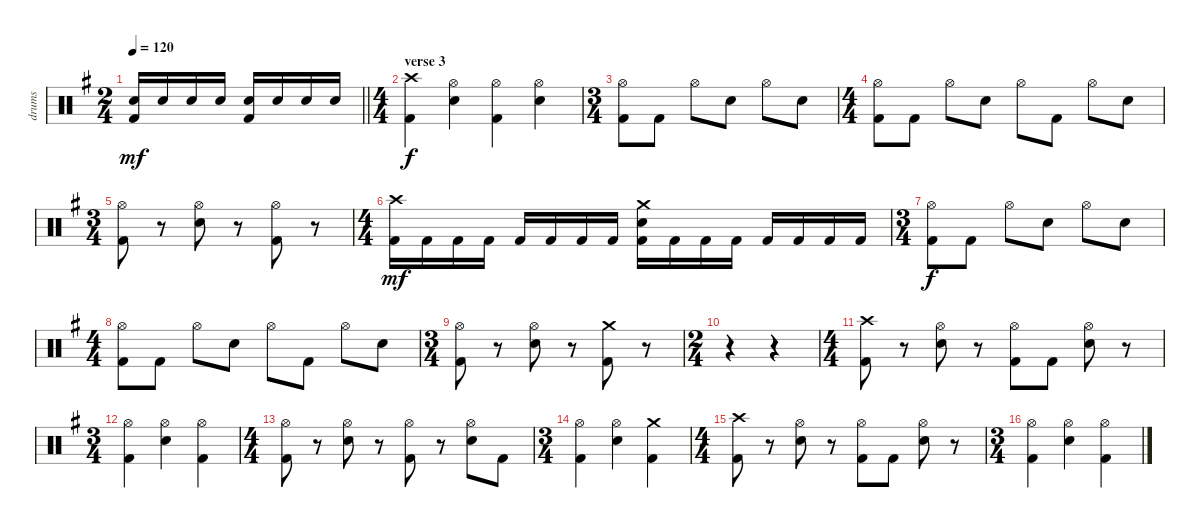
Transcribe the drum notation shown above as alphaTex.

\track ("drums" "drums") {instrument percussion}
\staff {score}
\articulation defaults
\ts (2 4)
\tempo 120
\clef neutral
\barLineRight lightlight
\ks g
("Snare (hit) 2" "Kick (hit) 2").16{dy mf} "Snare (hit) 2".16 "Snare (hit) 2".16 "Snare (hit) 2".16 ("Snare (hit) 2" "Kick (hit) 2").16 "Snare (hit) 2".16 "Snare (hit) 2".16 "Snare (hit) 2".16 |
\ts (4 4)
\section ("" "verse 3")
("Crash high (hit)" "Kick (hit) 2").4{dy f} ("Hi-Hat (open)" "Snare (hit) 2").4 ("Hi-Hat (open)" "Kick (hit) 2").4 ("Hi-Hat (open)" "Snare (hit) 2").4 |
\ts (3 4)
("Hi-Hat (open)" "Kick (hit) 2").8 "Kick (hit) 2".8 "Hi-Hat (open)".8 "Snare (hit) 2".8 "Hi-Hat (open)".8 "Snare (hit) 2".8 |
\ts (4 4)
("Hi-Hat (open)" "Kick (hit) 2").8 "Kick (hit) 2".8 "Hi-Hat (open)".8 "Snare (hit) 2".8 "Hi-Hat (open)".8 "Kick (hit) 2".8 "Hi-Hat (open)".8 "Snare (hit) 2".8 |
\ts (3 4)
("Hi-Hat (open)" "Kick (hit) 2").8 r.8 ("Hi-Hat (open)" "Snare (hit) 2").8 r.8 ("Hi-Hat (open)" "Kick (hit) 2").8 r.8 |
\ts (4 4)
("Crash high (hit)" "Kick (hit) 2").16{dy mf} "Kick (hit) 2".16 "Kick (hit) 2".16 "Kick (hit) 2".16 "Kick (hit) 2".16 "Kick (hit) 2".16 "Kick (hit) 2".16 "Kick (hit) 2".16 ("Crash medium (hit)" "Snare (hit) 2" "Kick (hit) 2").16 "Kick (hit) 2".16 "Kick (hit) 2".16 "Kick (hit) 2".16 "Kick (hit) 2".16 "Kick (hit) 2".16 "Kick (hit) 2".16 "Kick (hit) 2".16 |
\ts (3 4)
("Hi-Hat (open)" "Kick (hit) 2").8{dy f} "Kick (hit) 2".8 "Hi-Hat (open)".8 "Snare (hit) 2".8 "Hi-Hat (open)".8 "Snare (hit) 2".8 |
\ts (4 4)
("Hi-Hat (open)" "Kick (hit) 2").8 "Kick (hit) 2".8 "Hi-Hat (open)".8 "Snare (hit) 2".8 "Hi-Hat (open)".8 "Kick (hit) 2".8 "Hi-Hat (open)".8 "Snare (hit) 2".8 |
\ts (3 4)
("Hi-Hat (open)" "Kick (hit) 2").8 r.8 ("Hi-Hat (open)" "Snare (hit) 2").8 r.8 ("Crash medium (hit)" "Kick (hit) 2").8 r.8 |
\ts (2 4)
r.4 r.4 |
\ts (4 4)
("Crash high (hit)" "Kick (hit) 2").8 r.8 ("Hi-Hat (open)" "Snare (hit) 2").8 r.8 ("Hi-Hat (open)" "Kick (hit) 2").8 "Kick (hit) 2".8 ("Hi-Hat (open)" "Snare (hit) 2").8 r.8 |
\ts (3 4)
("Hi-Hat (open)" "Kick (hit) 2").4 ("Hi-Hat (open)" "Snare (hit) 2").4 ("Hi-Hat (open)" "Kick (hit) 2").4 |
\ts (4 4)
("Hi-Hat (open)" "Kick (hit) 2").8 r.8 ("Hi-Hat (open)" "Snare (hit) 2").8 r.8 ("Hi-Hat (open)" "Kick (hit) 2").8 r.8 ("Hi-Hat (open)" "Snare (hit) 2").8 "Kick (hit) 2".8 |
\ts (3 4)
("Hi-Hat (open)" "Kick (hit) 2").4 ("Hi-Hat (open)" "Snare (hit) 2").4 ("Crash medium (hit)" "Kick (hit) 2").4 |
\ts (4 4)
("Crash high (hit)" "Kick (hit) 2").8 r.8 ("Hi-Hat (open)" "Snare (hit) 2").8 r.8 ("Hi-Hat (open)" "Kick (hit) 2").8 "Kick (hit) 2".8 ("Hi-Hat (open)" "Snare (hit) 2").8 r.8 |
\ts (3 4)
("Hi-Hat (open)" "Kick (hit) 2").4 ("Hi-Hat (open)" "Snare (hit) 2").4 ("Hi-Hat (open)" "Kick (hit) 2").4
